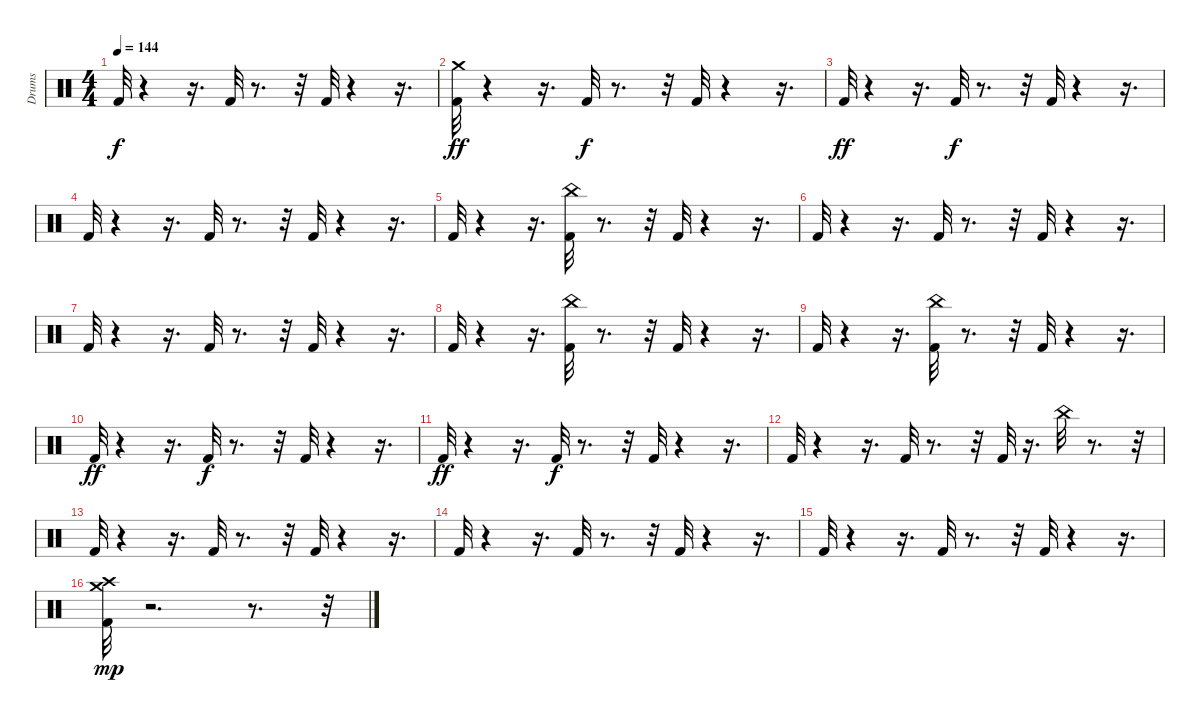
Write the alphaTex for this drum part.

\track ("Drums" "Drums") {instrument percussion}
\staff {score}
\articulation defaults
\ts (4 4)
\tempo 144
\clef neutral
\ks c "Kick (hit) 2".32{dy f}
r.4 r.16{d} "Kick (hit) 2".32 r.8{d} r.32 "Kick (hit) 2".32 r.4 r.16{d} |
("Crash medium (hit)" "Kick (hit) 2").32{dy ff} r.4 r.16{d} "Kick (hit) 2".32{dy f} r.8{d} r.32 "Kick (hit) 2".32 r.4 r.16{d} |
"Kick (hit) 2".32{dy ff} r.4 r.16{d} "Kick (hit) 2".32{dy f} r.8{d} r.32 "Kick (hit) 2".32 r.4 r.16{d} |
"Kick (hit) 2".32 r.4 r.16{d} "Kick (hit) 2".32 r.8{d} r.32 "Kick (hit) 2".32 r.4 r.16{d} |
"Kick (hit) 2".32 r.4 r.16{d} ("Kick (hit) 2" "China (hit)").32 r.8{d} r.32 "Kick (hit) 2".32 r.4 r.16{d} |
"Kick (hit) 2".32 r.4 r.16{d} "Kick (hit) 2".32 r.8{d} r.32 "Kick (hit) 2".32 r.4 r.16{d} |
"Kick (hit) 2".32 r.4 r.16{d} "Kick (hit) 2".32 r.8{d} r.32 "Kick (hit) 2".32 r.4 r.16{d} |
"Kick (hit) 2".32 r.4 r.16{d} ("China (hit)" "Kick (hit) 2").32 r.8{d} r.32 "Kick (hit) 2".32 r.4 r.16{d} |
"Kick (hit) 2".32 r.4 r.16{d} ("China (hit)" "Kick (hit) 2").32 r.8{d} r.32 "Kick (hit) 2".32 r.4 r.16{d} |
"Kick (hit) 2".32{dy ff} r.4 r.16{d} "Kick (hit) 2".32{dy f} r.8{d} r.32 "Kick (hit) 2".32 r.4 r.16{d} |
"Kick (hit) 2".32{dy ff} r.4 r.16{d} "Kick (hit) 2".32{dy f} r.8{d} r.32 "Kick (hit) 2".32 r.4 r.16{d} |
"Kick (hit) 2".32 r.4 r.16{d} "Kick (hit) 2".32 r.8{d} r.32 "Kick (hit) 2".32 r.16{d} "China (hit)".32 r.8{d} r.32 |
"Kick (hit) 2".32 r.4 r.16{d} "Kick (hit) 2".32 r.8{d} r.32 "Kick (hit) 2".32 r.4 r.16{d} |
"Kick (hit) 2".32 r.4 r.16{d} "Kick (hit) 2".32 r.8{d} r.32 "Kick (hit) 2".32 r.4 r.16{d} |
"Kick (hit) 2".32 r.4 r.16{d} "Kick (hit) 2".32 r.8{d} r.32 "Kick (hit) 2".32 r.4 r.16{d} |
("Crash medium (hit)" "Crash high (hit)" "Kick (hit) 2").32{dy mp} r.2{d} r.8{d} r.32
